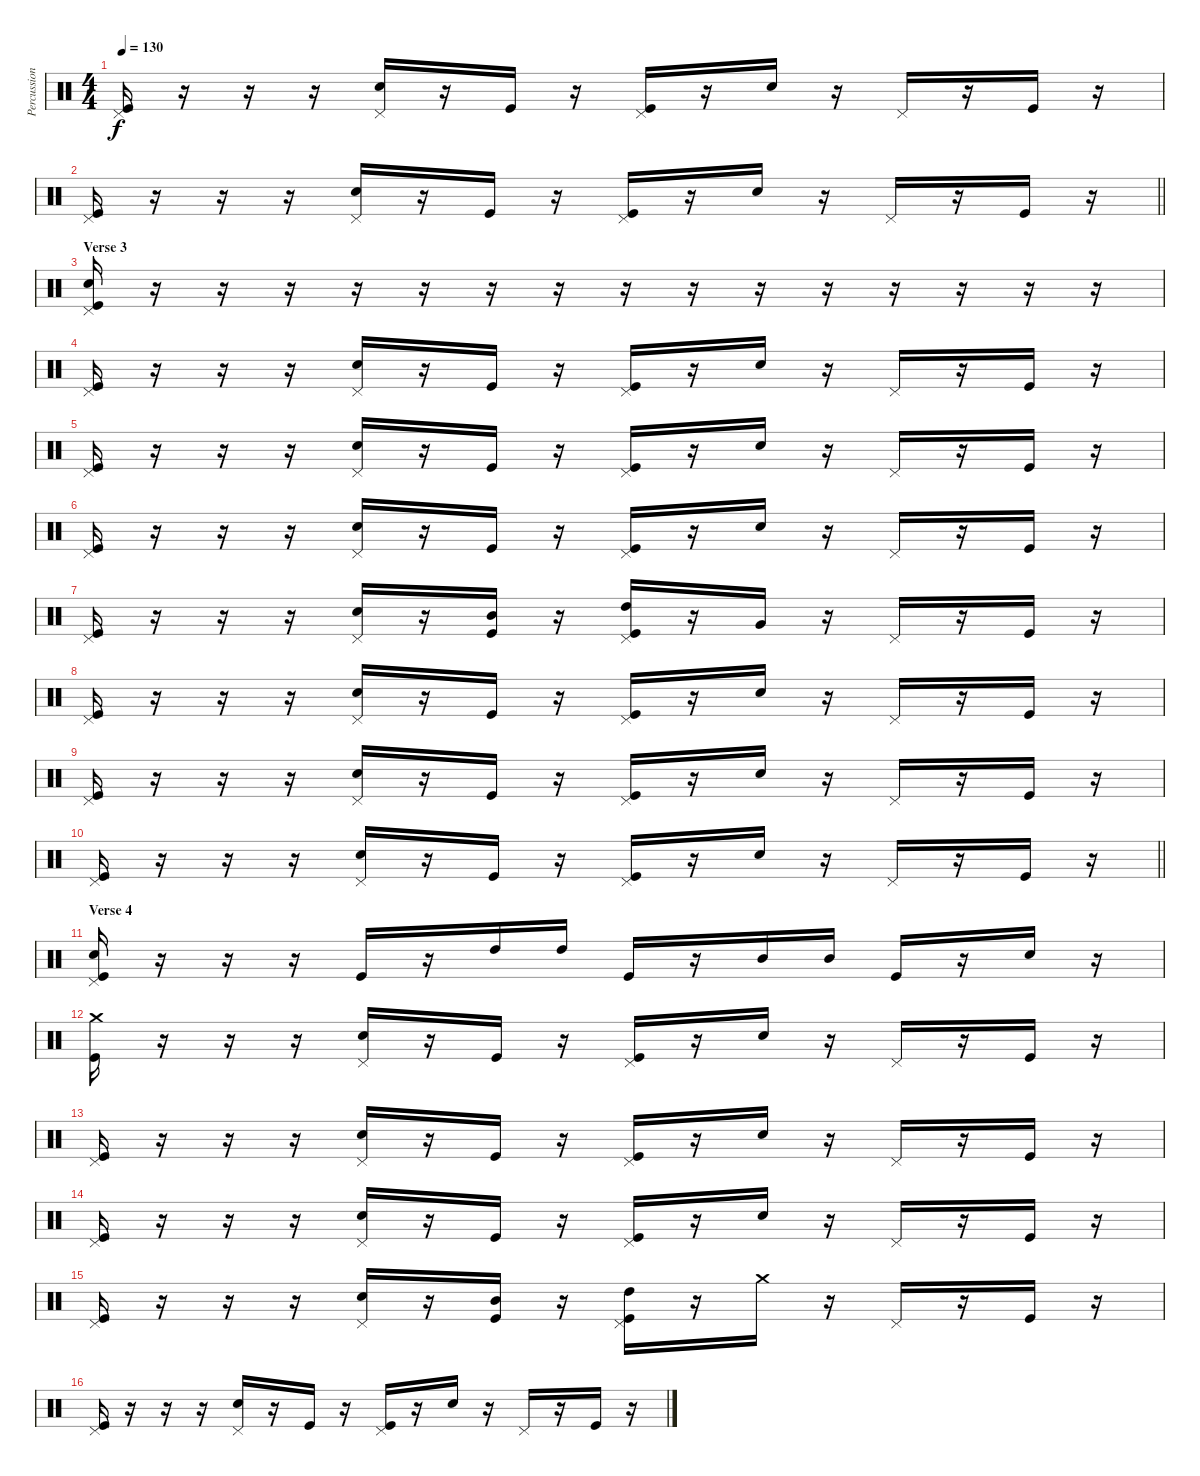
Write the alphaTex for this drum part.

\track ("Percussion" "Percussion") {instrument percussion}
\staff {score}
\articulation defaults
\ts (4 4)
\tempo 130
\clef neutral
\ks c
("Pedal Hi-Hat (hit)" "Kick (hit)").16{dy f} r.16 r.16 r.16 ("Pedal Hi-Hat (hit)" "Electric Snare (hit)").16 r.16 "Kick (hit)".16 r.16 ("Pedal Hi-Hat (hit)" "Kick (hit)").16 r.16 "Electric Snare (hit)".16 r.16 "Pedal Hi-Hat (hit)".16 r.16 "Kick (hit)".16 r.16 |
\barLineRight lightlight
("Pedal Hi-Hat (hit)" "Kick (hit)").16 r.16 r.16 r.16 ("Pedal Hi-Hat (hit)" "Electric Snare (hit)").16 r.16 "Kick (hit)".16 r.16 ("Pedal Hi-Hat (hit)" "Kick (hit)").16 r.16 "Electric Snare (hit)".16 r.16 "Pedal Hi-Hat (hit)".16 r.16 "Kick (hit)".16 r.16 |
\section ("" "Verse 3")
("Pedal Hi-Hat (hit)" "Electric Snare (hit)" "Kick (hit)").16 r.16 r.16 r.16 r.16 r.16 r.16 r.16 r.16 r.16 r.16 r.16 r.16 r.16 r.16 r.16 |
("Pedal Hi-Hat (hit)" "Kick (hit)").16 r.16 r.16 r.16 ("Pedal Hi-Hat (hit)" "Electric Snare (hit)").16 r.16 "Kick (hit)".16 r.16 ("Pedal Hi-Hat (hit)" "Kick (hit)").16 r.16 "Electric Snare (hit)".16 r.16 "Pedal Hi-Hat (hit)".16 r.16 "Kick (hit)".16 r.16 |
("Pedal Hi-Hat (hit)" "Kick (hit)").16 r.16 r.16 r.16 ("Pedal Hi-Hat (hit)" "Electric Snare (hit)").16 r.16 "Kick (hit)".16 r.16 ("Pedal Hi-Hat (hit)" "Kick (hit)").16 r.16 "Electric Snare (hit)".16 r.16 "Pedal Hi-Hat (hit)".16 r.16 "Kick (hit)".16 r.16 |
("Pedal Hi-Hat (hit)" "Kick (hit)").16 r.16 r.16 r.16 ("Pedal Hi-Hat (hit)" "Electric Snare (hit)").16 r.16 "Kick (hit)".16 r.16 ("Pedal Hi-Hat (hit)" "Kick (hit)").16 r.16 "Electric Snare (hit)".16 r.16 "Pedal Hi-Hat (hit)".16 r.16 "Kick (hit)".16 r.16 |
("Pedal Hi-Hat (hit)" "Kick (hit)").16 r.16 r.16 r.16 ("Pedal Hi-Hat (hit)" "Electric Snare (hit)").16 r.16 ("Mid Tom (hit)" "Kick (hit)").16 r.16 ("Pedal Hi-Hat (hit)" "High Tom (hit)" "Kick (hit)").16 r.16 "Very Low Tom (hit)".16 r.16 "Pedal Hi-Hat (hit)".16 r.16 "Kick (hit)".16 r.16 |
("Pedal Hi-Hat (hit)" "Kick (hit)").16 r.16 r.16 r.16 ("Pedal Hi-Hat (hit)" "Electric Snare (hit)").16 r.16 "Kick (hit)".16 r.16 ("Pedal Hi-Hat (hit)" "Kick (hit)").16 r.16 "Electric Snare (hit)".16 r.16 "Pedal Hi-Hat (hit)".16 r.16 "Kick (hit)".16 r.16 |
("Pedal Hi-Hat (hit)" "Kick (hit)").16 r.16 r.16 r.16 ("Pedal Hi-Hat (hit)" "Electric Snare (hit)").16 r.16 "Kick (hit)".16 r.16 ("Pedal Hi-Hat (hit)" "Kick (hit)").16 r.16 "Electric Snare (hit)".16 r.16 "Pedal Hi-Hat (hit)".16 r.16 "Kick (hit)".16 r.16 |
\barLineRight lightlight
("Pedal Hi-Hat (hit)" "Kick (hit)").16 r.16 r.16 r.16 ("Pedal Hi-Hat (hit)" "Electric Snare (hit)").16 r.16 "Kick (hit)".16 r.16 ("Pedal Hi-Hat (hit)" "Kick (hit)").16 r.16 "Electric Snare (hit)".16 r.16 "Pedal Hi-Hat (hit)".16 r.16 "Kick (hit)".16 r.16 |
\section ("" "Verse 4")
("Pedal Hi-Hat (hit)" "Electric Snare (hit)" "Kick (hit)").16 r.16 r.16 r.16 "Kick (hit)".16 r.16 "High Tom (hit)".16 "High Tom (hit)".16 "Kick (hit)".16 r.16 "Mid Tom (hit)".16 "Mid Tom (hit)".16 "Kick (hit)".16 r.16 "Electric Snare (hit)".16 r.16 |
("Crash medium (hit)" "Kick (hit)").16 r.16 r.16 r.16 ("Pedal Hi-Hat (hit)" "Electric Snare (hit)").16 r.16 "Kick (hit)".16 r.16 ("Pedal Hi-Hat (hit)" "Kick (hit)").16 r.16 "Electric Snare (hit)".16 r.16 "Pedal Hi-Hat (hit)".16 r.16 "Kick (hit)".16 r.16 |
("Pedal Hi-Hat (hit)" "Kick (hit)").16 r.16 r.16 r.16 ("Pedal Hi-Hat (hit)" "Electric Snare (hit)").16 r.16 "Kick (hit)".16 r.16 ("Pedal Hi-Hat (hit)" "Kick (hit)").16 r.16 "Electric Snare (hit)".16 r.16 "Pedal Hi-Hat (hit)".16 r.16 "Kick (hit)".16 r.16 |
("Pedal Hi-Hat (hit)" "Kick (hit)").16 r.16 r.16 r.16 ("Pedal Hi-Hat (hit)" "Electric Snare (hit)").16 r.16 "Kick (hit)".16 r.16 ("Pedal Hi-Hat (hit)" "Kick (hit)").16 r.16 "Electric Snare (hit)".16 r.16 "Pedal Hi-Hat (hit)".16 r.16 "Kick (hit)".16 r.16 |
("Pedal Hi-Hat (hit)" "Kick (hit)").16 r.16 r.16 r.16 ("Pedal Hi-Hat (hit)" "Electric Snare (hit)").16 r.16 ("Mid Tom (hit)" "Kick (hit)").16 r.16 ("Pedal Hi-Hat (hit)" "High Tom (hit)" "Kick (hit)").16 r.16 "Crash medium (hit)".16 r.16 "Pedal Hi-Hat (hit)".16 r.16 "Kick (hit)".16 r.16 |
("Pedal Hi-Hat (hit)" "Kick (hit)").16 r.16 r.16 r.16 ("Pedal Hi-Hat (hit)" "Electric Snare (hit)").16 r.16 "Kick (hit)".16 r.16 ("Pedal Hi-Hat (hit)" "Kick (hit)").16 r.16 "Electric Snare (hit)".16 r.16 "Pedal Hi-Hat (hit)".16 r.16 "Kick (hit)".16 r.16
